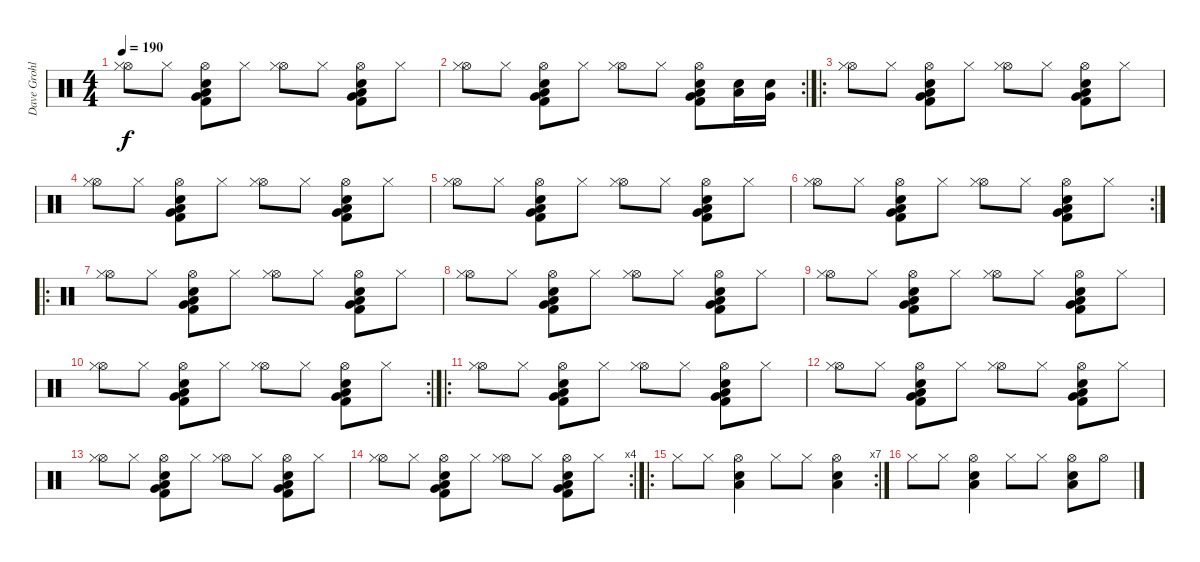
\track ("Dave Grohl (Drums)" "Dave Grohl") {instrument percussion}
\staff {score}
\articulation defaults
\ts (4 4)
\tempo 190
\clef neutral
\ks c
("Hi-Hat (open)" "Hi-Hat (closed)").8{dy f} "Hi-Hat (closed)".8 ("Snare (hit) 2" "Low Tom (hit)" "Hi-Hat (open)" "Very Low Tom (hit)" "Kick (hit) 2").8 "Hi-Hat (closed)".8 ("Hi-Hat (open)" "Hi-Hat (closed)").8 "Hi-Hat (closed)".8 ("Snare (hit) 2" "Low Tom (hit)" "Hi-Hat (open)" "Very Low Tom (hit)" "Kick (hit) 2").8 "Hi-Hat (closed)".8 |
\rc 2
("Hi-Hat (open)" "Hi-Hat (closed)").8 "Hi-Hat (closed)".8 ("Snare (hit) 2" "Low Tom (hit)" "Hi-Hat (open)" "Very Low Tom (hit)" "Kick (hit) 2").8 "Hi-Hat (closed)".8 ("Hi-Hat (open)" "Hi-Hat (closed)").8 "Hi-Hat (closed)".8 ("Snare (hit) 2" "Low Tom (hit)" "Hi-Hat (open)" "Very Low Tom (hit)" "Kick (hit) 2").8 ("Low Tom (hit)" "Snare (hit) 2").16 ("Very Low Tom (hit)" "Snare (hit) 2").16 |
\ro
("Hi-Hat (open)" "Hi-Hat (closed)").8 "Hi-Hat (closed)".8 ("Snare (hit) 2" "Low Tom (hit)" "Hi-Hat (open)" "Very Low Tom (hit)" "Kick (hit) 2").8 "Hi-Hat (closed)".8 ("Hi-Hat (open)" "Hi-Hat (closed)").8 "Hi-Hat (closed)".8 ("Snare (hit) 2" "Low Tom (hit)" "Hi-Hat (open)" "Very Low Tom (hit)" "Kick (hit) 2").8 "Hi-Hat (closed)".8 |
("Hi-Hat (open)" "Hi-Hat (closed)").8 "Hi-Hat (closed)".8 ("Snare (hit) 2" "Low Tom (hit)" "Hi-Hat (open)" "Very Low Tom (hit)" "Kick (hit) 2").8 "Hi-Hat (closed)".8 ("Hi-Hat (open)" "Hi-Hat (closed)").8 "Hi-Hat (closed)".8 ("Snare (hit) 2" "Low Tom (hit)" "Hi-Hat (open)" "Very Low Tom (hit)" "Kick (hit) 2").8 "Hi-Hat (closed)".8 |
("Hi-Hat (open)" "Hi-Hat (closed)").8 "Hi-Hat (closed)".8 ("Snare (hit) 2" "Low Tom (hit)" "Hi-Hat (open)" "Very Low Tom (hit)" "Kick (hit) 2").8 "Hi-Hat (closed)".8 ("Hi-Hat (open)" "Hi-Hat (closed)").8 "Hi-Hat (closed)".8 ("Snare (hit) 2" "Low Tom (hit)" "Hi-Hat (open)" "Very Low Tom (hit)" "Kick (hit) 2").8 "Hi-Hat (closed)".8 |
\rc 2
("Hi-Hat (open)" "Hi-Hat (closed)").8 "Hi-Hat (closed)".8 ("Snare (hit) 2" "Low Tom (hit)" "Hi-Hat (open)" "Very Low Tom (hit)" "Kick (hit) 2").8 "Hi-Hat (closed)".8 ("Hi-Hat (open)" "Hi-Hat (closed)").8 "Hi-Hat (closed)".8 ("Snare (hit) 2" "Low Tom (hit)" "Hi-Hat (open)" "Very Low Tom (hit)" "Kick (hit) 2").8 "Hi-Hat (closed)".8 |
\ro
("Hi-Hat (open)" "Hi-Hat (closed)").8 "Hi-Hat (closed)".8 ("Snare (hit) 2" "Low Tom (hit)" "Hi-Hat (open)" "Very Low Tom (hit)" "Kick (hit) 2").8 "Hi-Hat (closed)".8 ("Hi-Hat (open)" "Hi-Hat (closed)").8 "Hi-Hat (closed)".8 ("Snare (hit) 2" "Low Tom (hit)" "Hi-Hat (open)" "Very Low Tom (hit)" "Kick (hit) 2").8 "Hi-Hat (closed)".8 |
("Hi-Hat (open)" "Hi-Hat (closed)").8 "Hi-Hat (closed)".8 ("Snare (hit) 2" "Low Tom (hit)" "Hi-Hat (open)" "Very Low Tom (hit)" "Kick (hit) 2").8 "Hi-Hat (closed)".8 ("Hi-Hat (open)" "Hi-Hat (closed)").8 "Hi-Hat (closed)".8 ("Snare (hit) 2" "Low Tom (hit)" "Hi-Hat (open)" "Very Low Tom (hit)" "Kick (hit) 2").8 "Hi-Hat (closed)".8 |
("Hi-Hat (open)" "Hi-Hat (closed)").8 "Hi-Hat (closed)".8 ("Snare (hit) 2" "Low Tom (hit)" "Hi-Hat (open)" "Very Low Tom (hit)" "Kick (hit) 2").8 "Hi-Hat (closed)".8 ("Hi-Hat (open)" "Hi-Hat (closed)").8 "Hi-Hat (closed)".8 ("Snare (hit) 2" "Low Tom (hit)" "Hi-Hat (open)" "Very Low Tom (hit)" "Kick (hit) 2").8 "Hi-Hat (closed)".8 |
\rc 2
("Hi-Hat (open)" "Hi-Hat (closed)").8 "Hi-Hat (closed)".8 ("Snare (hit) 2" "Low Tom (hit)" "Hi-Hat (open)" "Very Low Tom (hit)" "Kick (hit) 2").8 "Hi-Hat (closed)".8 ("Hi-Hat (open)" "Hi-Hat (closed)").8 "Hi-Hat (closed)".8 ("Snare (hit) 2" "Low Tom (hit)" "Hi-Hat (open)" "Very Low Tom (hit)" "Kick (hit) 2").8 "Hi-Hat (closed)".8 |
\ro
("Hi-Hat (open)" "Hi-Hat (closed)").8 "Hi-Hat (closed)".8 ("Snare (hit) 2" "Low Tom (hit)" "Hi-Hat (open)" "Very Low Tom (hit)" "Kick (hit) 2").8 "Hi-Hat (closed)".8 ("Hi-Hat (open)" "Hi-Hat (closed)").8 "Hi-Hat (closed)".8 ("Snare (hit) 2" "Low Tom (hit)" "Hi-Hat (open)" "Very Low Tom (hit)" "Kick (hit) 2").8 "Hi-Hat (closed)".8 |
("Hi-Hat (open)" "Hi-Hat (closed)").8 "Hi-Hat (closed)".8 ("Snare (hit) 2" "Low Tom (hit)" "Hi-Hat (open)" "Very Low Tom (hit)" "Kick (hit) 2").8 "Hi-Hat (closed)".8 ("Hi-Hat (open)" "Hi-Hat (closed)").8 "Hi-Hat (closed)".8 ("Snare (hit) 2" "Low Tom (hit)" "Hi-Hat (open)" "Very Low Tom (hit)" "Kick (hit) 2").8 "Hi-Hat (closed)".8 |
("Hi-Hat (open)" "Hi-Hat (closed)").8 "Hi-Hat (closed)".8 ("Snare (hit) 2" "Low Tom (hit)" "Hi-Hat (open)" "Very Low Tom (hit)" "Kick (hit) 2").8 "Hi-Hat (closed)".8 ("Hi-Hat (open)" "Hi-Hat (closed)").8 "Hi-Hat (closed)".8 ("Snare (hit) 2" "Low Tom (hit)" "Hi-Hat (open)" "Very Low Tom (hit)" "Kick (hit) 2").8 "Hi-Hat (closed)".8 |
\rc 4
("Hi-Hat (open)" "Hi-Hat (closed)").8 "Hi-Hat (closed)".8 ("Snare (hit) 2" "Low Tom (hit)" "Hi-Hat (open)" "Very Low Tom (hit)" "Kick (hit) 2").8 "Hi-Hat (closed)".8 ("Hi-Hat (open)" "Hi-Hat (closed)").8 "Hi-Hat (closed)".8 ("Snare (hit) 2" "Low Tom (hit)" "Hi-Hat (open)" "Very Low Tom (hit)" "Kick (hit) 2").8 "Hi-Hat (closed)".8 |
\ro
\rc 7 "Hi-Hat (closed)".8 "Hi-Hat (closed)".8
("Snare (hit) 2" "Hi-Hat (open)" "Low Tom (hit)").4 "Hi-Hat (closed)".8 "Hi-Hat (closed)".8 ("Snare (hit) 2" "Hi-Hat (open)" "Low Tom (hit)").4 |
"Hi-Hat (closed)".8 "Hi-Hat (closed)".8 ("Snare (hit) 2" "Hi-Hat (open)" "Low Tom (hit)").4 "Hi-Hat (closed)".8 "Hi-Hat (closed)".8 ("Snare (hit) 2" "Hi-Hat (open)" "Low Tom (hit)").8 "Hi-Hat (open)".8
